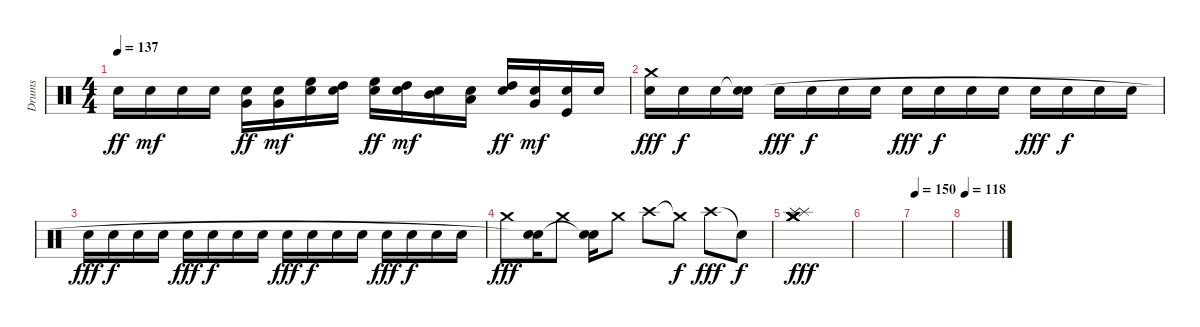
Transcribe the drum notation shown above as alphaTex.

\track ("Drums" "Drums") {instrument percussion}
\staff {score}
\articulation defaults
\ts (4 4)
\tempo 137
\clef neutral
\ks c "Electric Snare (hit)".16{dy ff} "Electric Snare (hit)".16{dy mf} "Electric Snare (hit)".16 "Electric Snare (hit)".16
("Very Low Tom (hit)" "Electric Snare (hit)").16{dy ff} ("Very Low Tom (hit)" "Electric Snare (hit)").16{dy mf} ("High Floor Tom (hit)" "Electric Snare (hit)").16 ("High Tom (hit)" "Electric Snare (hit)").16 ("High Floor Tom (hit)" "Electric Snare (hit)").16{dy ff} ("High Tom (hit)" "Electric Snare (hit)").16{dy mf} ("Mid Tom (hit)" "Electric Snare (hit)").16 ("Low Tom (hit)" "Electric Snare (hit)").16 ("High Tom (hit)" "Electric Snare (hit)").16{dy ff} ("Very Low Tom (hit)" "Electric Snare (hit)").16{dy mf} ("Kick (hit)" "Electric Snare (hit)").16 "Electric Snare (hit)".16 |
("Crash medium (hit)" "Electric Snare (hit)").16{dy fff} "Electric Snare (hit)".16{dy f} "Electric Snare (hit)".16 ("Snare (hit)"{t} "Electric Snare (hit)").16 "Electric Snare (hit)".16{dy fff} "Electric Snare (hit)".16{dy f} "Electric Snare (hit)".16 "Electric Snare (hit)".16 "Electric Snare (hit)".16{dy fff} "Electric Snare (hit)".16{dy f} "Electric Snare (hit)".16 "Electric Snare (hit)".16 "Electric Snare (hit)".16{dy fff} "Electric Snare (hit)".16{dy f} "Electric Snare (hit)".16 "Electric Snare (hit)".16 |
"Electric Snare (hit)".16{dy fff} "Electric Snare (hit)".16{dy f} "Electric Snare (hit)".16 "Electric Snare (hit)".16 "Electric Snare (hit)".16{dy fff} "Electric Snare (hit)".16{dy f} "Electric Snare (hit)".16 "Electric Snare (hit)".16 "Electric Snare (hit)".16{dy fff} "Electric Snare (hit)".16{dy f} "Electric Snare (hit)".16 "Electric Snare (hit)".16 "Electric Snare (hit)".16{dy fff} "Electric Snare (hit)".16{dy f} "Electric Snare (hit)".16 "Electric Snare (hit)".16 |
"Crash medium (hit)".8{dy fff} ("Electric Snare (hit)" "Snare (hit)"{t}).16 "Crash medium (hit)".8 ("Electric Snare (hit)" "Snare (hit)"{t}).16 "Crash medium (hit)".8 "Crash high (hit)".8 "Crash medium (hit)"{t}.8{dy f} "Crash high (hit)".8{dy fff} "Snare (hit)"{t}.8{dy f} |
("Splash (hit)" "Crash medium (hit)" "Crash medium (hit)" "Crash medium (hit)" "Splash (hit)").1{dy fff} |
|
\tempo 150
|
\tempo 118
